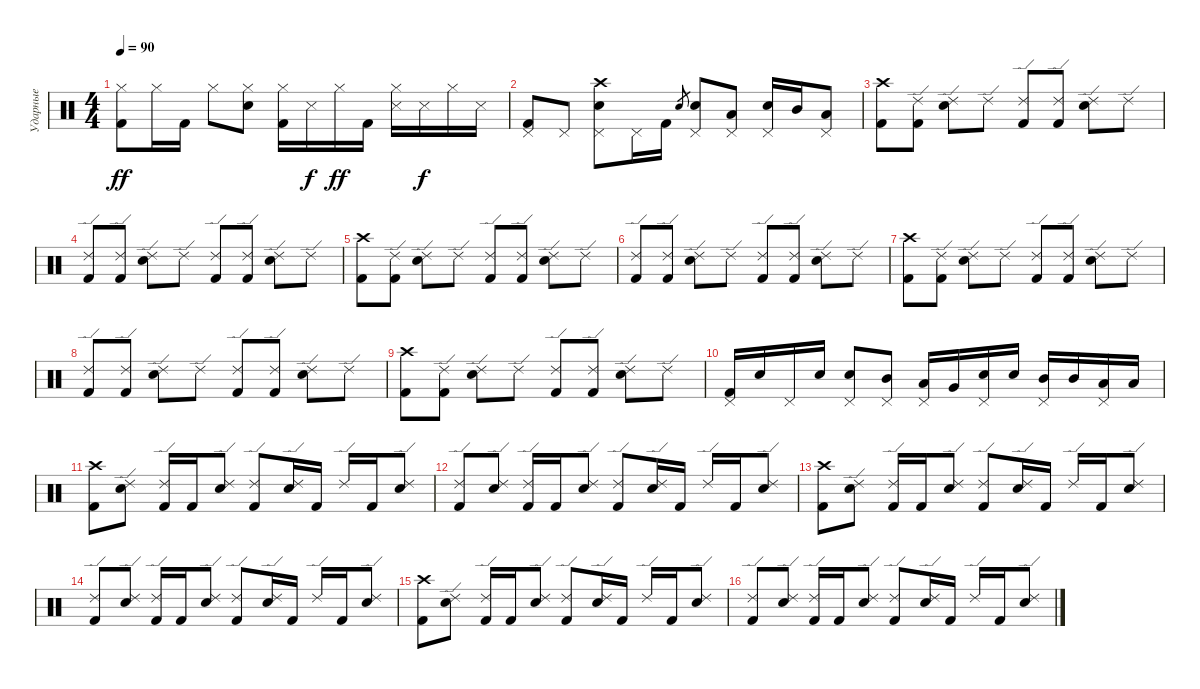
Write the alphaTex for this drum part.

\track ("Ударные" "Ударные") {instrument percussion}
\staff {score}
\articulation defaults
\ts (4 4)
\tempo 90
\clef neutral
\ks c
("Hi-Hat (closed)" "Kick (hit) 2").8{dy ff} "Hi-Hat (closed)".16 "Kick (hit) 2".16 "Hi-Hat (closed)".8 ("Hi-Hat (closed)" "Electric Snare (hit)").8 ("Hi-Hat (closed)" "Kick (hit) 2").16 "Snare (side stick) 3".16{dy f} "Hi-Hat (closed)".16{dy ff} "Kick (hit) 2".16 ("Hi-Hat (closed)" "Snare (side stick) 3").16 "Snare (side stick) 3".16{dy f} "Hi-Hat (closed)".16 "Snare (side stick) 3".16 |
("Pedal Hi-Hat (hit)" "Kick (hit) 2").8 "Pedal Hi-Hat (hit)".8 ("Pedal Hi-Hat (hit)" "Electric Snare (hit)" "Crash high (hit)").8 "Pedal Hi-Hat (hit)".16 "Kick (hit) 2".16 "Electric Snare (hit)".8{gr} ("Pedal Hi-Hat (hit)" "Electric Snare (hit)").8 ("Pedal Hi-Hat (hit)" "Low Tom (hit)").8 ("Pedal Hi-Hat (hit)" "Electric Snare (hit)").16 "Mid Tom (hit)".16 ("Pedal Hi-Hat (hit)" "Low Tom (hit)").8 |
("Kick (hit) 2" "Crash high (hit)").8 ("Kick (hit) 2" "Ride (edge) 2").8 ("Electric Snare (hit)" "Ride (edge) 2").8 "Ride (edge) 2".8 ("Kick (hit) 2" "Ride (edge) 2").8 ("Kick (hit) 2" "Ride (edge) 2").8 ("Electric Snare (hit)" "Ride (edge) 2").8 "Ride (edge) 2".8 |
("Kick (hit) 2" "Ride (edge) 2").8 ("Kick (hit) 2" "Ride (edge) 2").8 ("Electric Snare (hit)" "Ride (edge) 2").8 "Ride (edge) 2".8 ("Kick (hit) 2" "Ride (edge) 2").8 ("Kick (hit) 2" "Ride (edge) 2").8 ("Electric Snare (hit)" "Ride (edge) 2").8 "Ride (edge) 2".8 |
("Kick (hit) 2" "Crash high (hit)").8 ("Kick (hit) 2" "Ride (edge) 2").8 ("Electric Snare (hit)" "Ride (edge) 2").8 "Ride (edge) 2".8 ("Kick (hit) 2" "Ride (edge) 2").8 ("Kick (hit) 2" "Ride (edge) 2").8 ("Electric Snare (hit)" "Ride (edge) 2").8 "Ride (edge) 2".8 |
("Kick (hit) 2" "Ride (edge) 2").8 ("Kick (hit) 2" "Ride (edge) 2").8 ("Electric Snare (hit)" "Ride (edge) 2").8 "Ride (edge) 2".8 ("Kick (hit) 2" "Ride (edge) 2").8 ("Kick (hit) 2" "Ride (edge) 2").8 ("Electric Snare (hit)" "Ride (edge) 2").8 "Ride (edge) 2".8 |
("Kick (hit) 2" "Crash high (hit)").8 ("Kick (hit) 2" "Ride (edge) 2").8 ("Electric Snare (hit)" "Ride (edge) 2").8 "Ride (edge) 2".8 ("Kick (hit) 2" "Ride (edge) 2").8 ("Kick (hit) 2" "Ride (edge) 2").8 ("Electric Snare (hit)" "Ride (edge) 2").8 "Ride (edge) 2".8 |
("Kick (hit) 2" "Ride (edge) 2").8 ("Kick (hit) 2" "Ride (edge) 2").8 ("Electric Snare (hit)" "Ride (edge) 2").8 "Ride (edge) 2".8 ("Kick (hit) 2" "Ride (edge) 2").8 ("Kick (hit) 2" "Ride (edge) 2").8 ("Electric Snare (hit)" "Ride (edge) 2").8 "Ride (edge) 2".8 |
("Kick (hit) 2" "Crash high (hit)").8 ("Kick (hit) 2" "Ride (edge) 2").8 ("Electric Snare (hit)" "Ride (edge) 2").8 "Ride (edge) 2".8 ("Kick (hit) 2" "Ride (edge) 2").8 ("Kick (hit) 2" "Ride (edge) 2").8 ("Electric Snare (hit)" "Ride (edge) 2").8 "Ride (edge) 2".8 |
("Pedal Hi-Hat (hit)" "Kick (hit) 2").16 "Electric Snare (hit)".16 "Pedal Hi-Hat (hit)".16 "Electric Snare (hit)".16 ("Pedal Hi-Hat (hit)" "Electric Snare (hit)").8 ("Pedal Hi-Hat (hit)" "Mid Tom (hit)").8 ("Pedal Hi-Hat (hit)" "Low Tom (hit)").16 "Very Low Tom (hit)".16 ("Pedal Hi-Hat (hit)" "Electric Snare (hit)").16 "Electric Snare (hit)".16 ("Pedal Hi-Hat (hit)" "Mid Tom (hit)").16 "Mid Tom (hit)".16 ("Pedal Hi-Hat (hit)" "Low Tom (hit)").16 "Low Tom (hit)".16 |
("Kick (hit) 2" "Crash high (hit)").8 ("Electric Snare (hit)" "Ride (edge) 2").8 ("Kick (hit) 2" "Ride (edge) 2").16 "Kick (hit) 2".16 ("Electric Snare (hit)" "Ride (edge) 2").8 ("Kick (hit) 2" "Ride (edge) 2").8 ("Electric Snare (hit)" "Ride (edge) 2").16 "Kick (hit) 2".16 "Ride (edge) 2".16 "Kick (hit) 2".16 ("Electric Snare (hit)" "Ride (edge) 2").8 |
("Kick (hit) 2" "Ride (edge) 2").8 ("Electric Snare (hit)" "Ride (edge) 2").8 ("Kick (hit) 2" "Ride (edge) 2").16 "Kick (hit) 2".16 ("Electric Snare (hit)" "Ride (edge) 2").8 ("Kick (hit) 2" "Ride (edge) 2").8 ("Electric Snare (hit)" "Ride (edge) 2").16 "Kick (hit) 2".16 "Ride (edge) 2".16 "Kick (hit) 2".16 ("Electric Snare (hit)" "Ride (edge) 2").8 |
("Kick (hit) 2" "Crash high (hit)").8 ("Electric Snare (hit)" "Ride (edge) 2").8 ("Kick (hit) 2" "Ride (edge) 2").16 "Kick (hit) 2".16 ("Electric Snare (hit)" "Ride (edge) 2").8 ("Kick (hit) 2" "Ride (edge) 2").8 ("Electric Snare (hit)" "Ride (edge) 2").16 "Kick (hit) 2".16 "Ride (edge) 2".16 "Kick (hit) 2".16 ("Electric Snare (hit)" "Ride (edge) 2").8 |
("Kick (hit) 2" "Ride (edge) 2").8 ("Electric Snare (hit)" "Ride (edge) 2").8 ("Kick (hit) 2" "Ride (edge) 2").16 "Kick (hit) 2".16 ("Electric Snare (hit)" "Ride (edge) 2").8 ("Kick (hit) 2" "Ride (edge) 2").8 ("Electric Snare (hit)" "Ride (edge) 2").16 "Kick (hit) 2".16 "Ride (edge) 2".16 "Kick (hit) 2".16 ("Electric Snare (hit)" "Ride (edge) 2").8 |
("Kick (hit) 2" "Crash high (hit)").8 ("Electric Snare (hit)" "Ride (edge) 2").8 ("Kick (hit) 2" "Ride (edge) 2").16 "Kick (hit) 2".16 ("Electric Snare (hit)" "Ride (edge) 2").8 ("Kick (hit) 2" "Ride (edge) 2").8 ("Electric Snare (hit)" "Ride (edge) 2").16 "Kick (hit) 2".16 "Ride (edge) 2".16 "Kick (hit) 2".16 ("Electric Snare (hit)" "Ride (edge) 2").8 |
("Kick (hit) 2" "Ride (edge) 2").8 ("Electric Snare (hit)" "Ride (edge) 2").8 ("Kick (hit) 2" "Ride (edge) 2").16 "Kick (hit) 2".16 ("Electric Snare (hit)" "Ride (edge) 2").8 ("Kick (hit) 2" "Ride (edge) 2").8 ("Electric Snare (hit)" "Ride (edge) 2").16 "Kick (hit) 2".16 "Ride (edge) 2".16 "Kick (hit) 2".16 ("Electric Snare (hit)" "Ride (edge) 2").8
